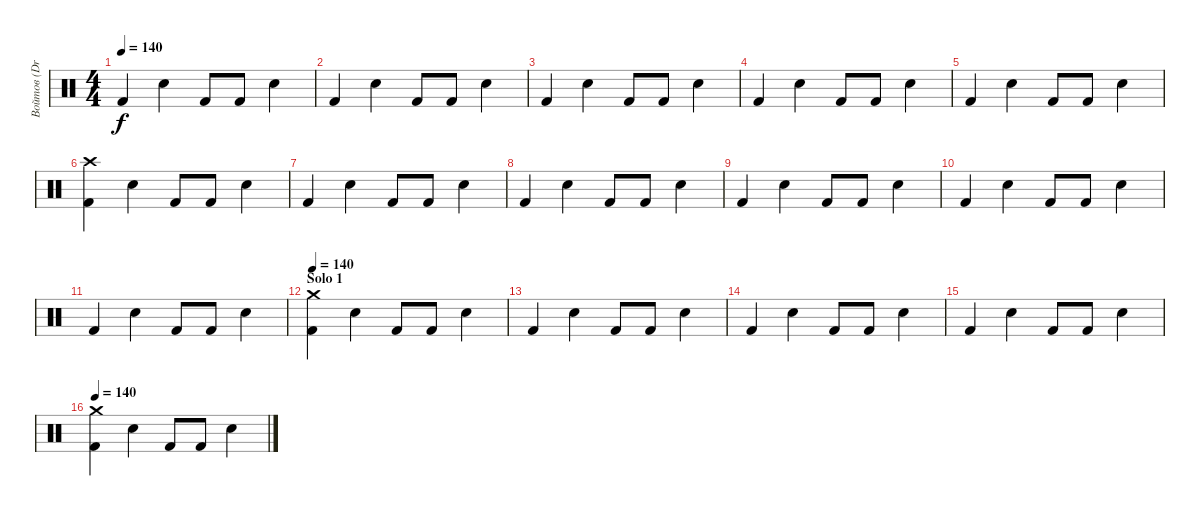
\track ("Войтов (Drums)" "Войтов (Dr") {instrument percussion}
\staff {score}
\articulation defaults
\ts (4 4)
\tempo 140
\clef neutral
\ks c "Kick (hit) 2".4{dy f} "Electric Snare (hit)".4 "Kick (hit) 2".8 "Kick (hit) 2".8 "Electric Snare (hit)".4
|
"Kick (hit) 2".4 "Electric Snare (hit)".4 "Kick (hit) 2".8 "Kick (hit) 2".8 "Electric Snare (hit)".4 |
"Kick (hit) 2".4 "Electric Snare (hit)".4 "Kick (hit) 2".8 "Kick (hit) 2".8 "Electric Snare (hit)".4 |
"Kick (hit) 2".4 "Electric Snare (hit)".4 "Kick (hit) 2".8 "Kick (hit) 2".8 "Electric Snare (hit)".4 |
"Kick (hit) 2".4 "Electric Snare (hit)".4 "Kick (hit) 2".8 "Kick (hit) 2".8 "Electric Snare (hit)".4 |
("Kick (hit) 2" "Crash high (hit)").4 "Electric Snare (hit)".4 "Kick (hit) 2".8 "Kick (hit) 2".8 "Electric Snare (hit)".4 |
"Kick (hit) 2".4 "Electric Snare (hit)".4 "Kick (hit) 2".8 "Kick (hit) 2".8 "Electric Snare (hit)".4 |
"Kick (hit) 2".4 "Electric Snare (hit)".4 "Kick (hit) 2".8 "Kick (hit) 2".8 "Electric Snare (hit)".4 |
"Kick (hit) 2".4 "Electric Snare (hit)".4 "Kick (hit) 2".8 "Kick (hit) 2".8 "Electric Snare (hit)".4 |
"Kick (hit) 2".4 "Electric Snare (hit)".4 "Kick (hit) 2".8 "Kick (hit) 2".8 "Electric Snare (hit)".4 |
"Kick (hit) 2".4 "Electric Snare (hit)".4 "Kick (hit) 2".8 "Kick (hit) 2".8 "Electric Snare (hit)".4 |
\section ("" "Solo 1")
\tempo 140
("Kick (hit) 2" "Crash medium (hit)").4 "Electric Snare (hit)".4 "Kick (hit) 2".8 "Kick (hit) 2".8 "Electric Snare (hit)".4 |
"Kick (hit) 2".4 "Electric Snare (hit)".4 "Kick (hit) 2".8 "Kick (hit) 2".8 "Electric Snare (hit)".4 |
"Kick (hit) 2".4 "Electric Snare (hit)".4 "Kick (hit) 2".8 "Kick (hit) 2".8 "Electric Snare (hit)".4 |
"Kick (hit) 2".4 "Electric Snare (hit)".4 "Kick (hit) 2".8 "Kick (hit) 2".8 "Electric Snare (hit)".4 |
\tempo 140
("Kick (hit) 2" "Crash medium (hit)").4 "Electric Snare (hit)".4 "Kick (hit) 2".8 "Kick (hit) 2".8 "Electric Snare (hit)".4
